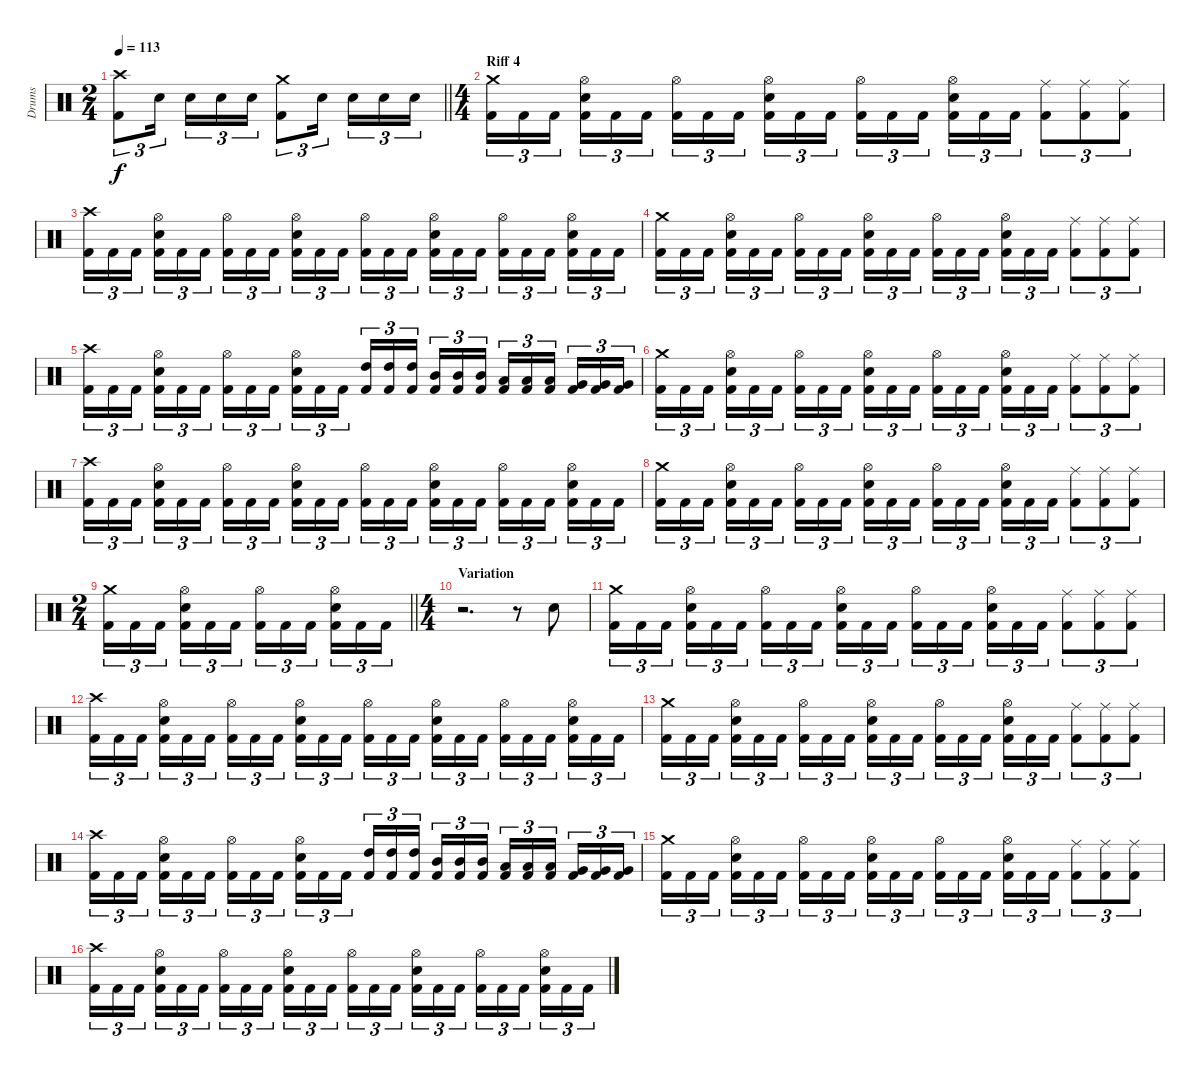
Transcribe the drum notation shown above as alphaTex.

\track ("Drums" "Drums") {instrument percussion}
\staff {score}
\articulation defaults
\ts (2 4)
\tempo 113
\clef neutral
\barLineRight lightlight
\ks c
("Crash high (hit)" "Kick (hit) 2").8{tu (3 2) dy f} "Snare (hit) 2".16{tu (3 2) beam splitsecondary} "Snare (hit) 2".16{tu (3 2)} "Snare (hit) 2".16{tu (3 2)} "Snare (hit) 2".16{tu (3 2)} ("Crash medium (hit)" "Kick (hit) 2").8{tu (3 2)} "Snare (hit) 2".16{tu (3 2) beam splitsecondary} "Snare (hit) 2".16{tu (3 2)} "Snare (hit) 2".16{tu (3 2)} "Snare (hit) 2".16{tu (3 2)} |
\ts (4 4)
\section ("" "Riff 4")
("Crash medium (hit)" "Kick (hit) 2").16{tu (3 2)} "Kick (hit) 2".16{tu (3 2)} "Kick (hit) 2".16{tu (3 2) beam splitsecondary} ("Hi-Hat (open)" "Snare (hit) 2" "Kick (hit) 2").16{tu (3 2)} "Kick (hit) 2".16{tu (3 2)} "Kick (hit) 2".16{tu (3 2)} ("Hi-Hat (open)" "Kick (hit) 2").16{tu (3 2)} "Kick (hit) 2".16{tu (3 2)} "Kick (hit) 2".16{tu (3 2) beam splitsecondary} ("Hi-Hat (open)" "Snare (hit) 2" "Kick (hit) 2").16{tu (3 2)} "Kick (hit) 2".16{tu (3 2)} "Kick (hit) 2".16{tu (3 2)} ("Hi-Hat (open)" "Kick (hit) 2").16{tu (3 2)} "Kick (hit) 2".16{tu (3 2)} "Kick (hit) 2".16{tu (3 2) beam splitsecondary} ("Hi-Hat (open)" "Snare (hit) 2" "Kick (hit) 2").16{tu (3 2)} "Kick (hit) 2".16{tu (3 2)} "Kick (hit) 2".16{tu (3 2)} ("Ride (middle)" "Kick (hit) 2").8{tu (3 2)} ("Ride (middle)" "Kick (hit) 2").8{tu (3 2)} ("Ride (middle)" "Kick (hit) 2").8{tu (3 2)} |
("Crash high (hit)" "Kick (hit) 2").16{tu (3 2)} "Kick (hit) 2".16{tu (3 2)} "Kick (hit) 2".16{tu (3 2) beam splitsecondary} ("Hi-Hat (open)" "Snare (hit) 2" "Kick (hit) 2").16{tu (3 2)} "Kick (hit) 2".16{tu (3 2)} "Kick (hit) 2".16{tu (3 2)} ("Hi-Hat (open)" "Kick (hit) 2").16{tu (3 2)} "Kick (hit) 2".16{tu (3 2)} "Kick (hit) 2".16{tu (3 2) beam splitsecondary} ("Hi-Hat (open)" "Snare (hit) 2" "Kick (hit) 2").16{tu (3 2)} "Kick (hit) 2".16{tu (3 2)} "Kick (hit) 2".16{tu (3 2)} ("Hi-Hat (open)" "Kick (hit) 2").16{tu (3 2)} "Kick (hit) 2".16{tu (3 2)} "Kick (hit) 2".16{tu (3 2) beam splitsecondary} ("Hi-Hat (open)" "Snare (hit) 2" "Kick (hit) 2").16{tu (3 2)} "Kick (hit) 2".16{tu (3 2)} "Kick (hit) 2".16{tu (3 2)} ("Hi-Hat (open)" "Kick (hit) 2").16{tu (3 2)} "Kick (hit) 2".16{tu (3 2)} "Kick (hit) 2".16{tu (3 2) beam splitsecondary} ("Hi-Hat (open)" "Snare (hit) 2" "Kick (hit) 2").16{tu (3 2)} "Kick (hit) 2".16{tu (3 2)} "Kick (hit) 2".16{tu (3 2)} |
("Crash medium (hit)" "Kick (hit) 2").16{tu (3 2)} "Kick (hit) 2".16{tu (3 2)} "Kick (hit) 2".16{tu (3 2) beam splitsecondary} ("Hi-Hat (open)" "Snare (hit) 2" "Kick (hit) 2").16{tu (3 2)} "Kick (hit) 2".16{tu (3 2)} "Kick (hit) 2".16{tu (3 2)} ("Hi-Hat (open)" "Kick (hit) 2").16{tu (3 2)} "Kick (hit) 2".16{tu (3 2)} "Kick (hit) 2".16{tu (3 2) beam splitsecondary} ("Hi-Hat (open)" "Snare (hit) 2" "Kick (hit) 2").16{tu (3 2)} "Kick (hit) 2".16{tu (3 2)} "Kick (hit) 2".16{tu (3 2)} ("Hi-Hat (open)" "Kick (hit) 2").16{tu (3 2)} "Kick (hit) 2".16{tu (3 2)} "Kick (hit) 2".16{tu (3 2) beam splitsecondary} ("Hi-Hat (open)" "Snare (hit) 2" "Kick (hit) 2").16{tu (3 2)} "Kick (hit) 2".16{tu (3 2)} "Kick (hit) 2".16{tu (3 2)} ("Ride (middle)" "Kick (hit) 2").8{tu (3 2)} ("Ride (middle)" "Kick (hit) 2").8{tu (3 2)} ("Ride (middle)" "Kick (hit) 2").8{tu (3 2)} |
("Crash high (hit)" "Kick (hit) 2").16{tu (3 2)} "Kick (hit) 2".16{tu (3 2)} "Kick (hit) 2".16{tu (3 2) beam splitsecondary} ("Hi-Hat (open)" "Snare (hit) 2" "Kick (hit) 2").16{tu (3 2)} "Kick (hit) 2".16{tu (3 2)} "Kick (hit) 2".16{tu (3 2)} ("Hi-Hat (open)" "Kick (hit) 2").16{tu (3 2)} "Kick (hit) 2".16{tu (3 2)} "Kick (hit) 2".16{tu (3 2) beam splitsecondary} ("Hi-Hat (open)" "Snare (hit) 2" "Kick (hit) 2").16{tu (3 2)} "Kick (hit) 2".16{tu (3 2)} "Kick (hit) 2".16{tu (3 2)} ("High Tom (hit)" "Kick (hit) 2").16{tu (3 2)} ("High Tom (hit)" "Kick (hit) 2").16{tu (3 2)} ("High Tom (hit)" "Kick (hit) 2").16{tu (3 2) beam splitsecondary} ("Mid Tom (hit)" "Kick (hit) 2").16{tu (3 2)} ("Mid Tom (hit)" "Kick (hit) 2").16{tu (3 2)} ("Mid Tom (hit)" "Kick (hit) 2").16{tu (3 2)} ("Low Tom (hit)" "Kick (hit) 2").16{tu (3 2)} ("Low Tom (hit)" "Kick (hit) 2").16{tu (3 2)} ("Low Tom (hit)" "Kick (hit) 2").16{tu (3 2) beam splitsecondary} ("Very Low Tom (hit)" "Kick (hit) 2").16{tu (3 2)} ("Very Low Tom (hit)" "Kick (hit) 2").16{tu (3 2)} ("Very Low Tom (hit)" "Kick (hit) 2").16{tu (3 2)} |
("Crash medium (hit)" "Kick (hit) 2").16{tu (3 2)} "Kick (hit) 2".16{tu (3 2)} "Kick (hit) 2".16{tu (3 2) beam splitsecondary} ("Hi-Hat (open)" "Snare (hit) 2" "Kick (hit) 2").16{tu (3 2)} "Kick (hit) 2".16{tu (3 2)} "Kick (hit) 2".16{tu (3 2)} ("Hi-Hat (open)" "Kick (hit) 2").16{tu (3 2)} "Kick (hit) 2".16{tu (3 2)} "Kick (hit) 2".16{tu (3 2) beam splitsecondary} ("Hi-Hat (open)" "Snare (hit) 2" "Kick (hit) 2").16{tu (3 2)} "Kick (hit) 2".16{tu (3 2)} "Kick (hit) 2".16{tu (3 2)} ("Hi-Hat (open)" "Kick (hit) 2").16{tu (3 2)} "Kick (hit) 2".16{tu (3 2)} "Kick (hit) 2".16{tu (3 2) beam splitsecondary} ("Hi-Hat (open)" "Snare (hit) 2" "Kick (hit) 2").16{tu (3 2)} "Kick (hit) 2".16{tu (3 2)} "Kick (hit) 2".16{tu (3 2)} ("Ride (middle)" "Kick (hit) 2").8{tu (3 2)} ("Ride (middle)" "Kick (hit) 2").8{tu (3 2)} ("Ride (middle)" "Kick (hit) 2").8{tu (3 2)} |
("Crash high (hit)" "Kick (hit) 2").16{tu (3 2)} "Kick (hit) 2".16{tu (3 2)} "Kick (hit) 2".16{tu (3 2) beam splitsecondary} ("Hi-Hat (open)" "Snare (hit) 2" "Kick (hit) 2").16{tu (3 2)} "Kick (hit) 2".16{tu (3 2)} "Kick (hit) 2".16{tu (3 2)} ("Hi-Hat (open)" "Kick (hit) 2").16{tu (3 2)} "Kick (hit) 2".16{tu (3 2)} "Kick (hit) 2".16{tu (3 2) beam splitsecondary} ("Hi-Hat (open)" "Snare (hit) 2" "Kick (hit) 2").16{tu (3 2)} "Kick (hit) 2".16{tu (3 2)} "Kick (hit) 2".16{tu (3 2)} ("Hi-Hat (open)" "Kick (hit) 2").16{tu (3 2)} "Kick (hit) 2".16{tu (3 2)} "Kick (hit) 2".16{tu (3 2) beam splitsecondary} ("Hi-Hat (open)" "Snare (hit) 2" "Kick (hit) 2").16{tu (3 2)} "Kick (hit) 2".16{tu (3 2)} "Kick (hit) 2".16{tu (3 2)} ("Hi-Hat (open)" "Kick (hit) 2").16{tu (3 2)} "Kick (hit) 2".16{tu (3 2)} "Kick (hit) 2".16{tu (3 2) beam splitsecondary} ("Hi-Hat (open)" "Snare (hit) 2" "Kick (hit) 2").16{tu (3 2)} "Kick (hit) 2".16{tu (3 2)} "Kick (hit) 2".16{tu (3 2)} |
("Crash medium (hit)" "Kick (hit) 2").16{tu (3 2)} "Kick (hit) 2".16{tu (3 2)} "Kick (hit) 2".16{tu (3 2) beam splitsecondary} ("Hi-Hat (open)" "Snare (hit) 2" "Kick (hit) 2").16{tu (3 2)} "Kick (hit) 2".16{tu (3 2)} "Kick (hit) 2".16{tu (3 2)} ("Hi-Hat (open)" "Kick (hit) 2").16{tu (3 2)} "Kick (hit) 2".16{tu (3 2)} "Kick (hit) 2".16{tu (3 2) beam splitsecondary} ("Hi-Hat (open)" "Snare (hit) 2" "Kick (hit) 2").16{tu (3 2)} "Kick (hit) 2".16{tu (3 2)} "Kick (hit) 2".16{tu (3 2)} ("Hi-Hat (open)" "Kick (hit) 2").16{tu (3 2)} "Kick (hit) 2".16{tu (3 2)} "Kick (hit) 2".16{tu (3 2) beam splitsecondary} ("Hi-Hat (open)" "Snare (hit) 2" "Kick (hit) 2").16{tu (3 2)} "Kick (hit) 2".16{tu (3 2)} "Kick (hit) 2".16{tu (3 2)} ("Ride (middle)" "Kick (hit) 2").8{tu (3 2)} ("Ride (middle)" "Kick (hit) 2").8{tu (3 2)} ("Ride (middle)" "Kick (hit) 2").8{tu (3 2)} |
\ts (2 4)
\barLineRight lightlight
("Crash medium (hit)" "Kick (hit) 2").16{tu (3 2)} "Kick (hit) 2".16{tu (3 2)} "Kick (hit) 2".16{tu (3 2) beam splitsecondary} ("Hi-Hat (open)" "Snare (hit) 2" "Kick (hit) 2").16{tu (3 2)} "Kick (hit) 2".16{tu (3 2)} "Kick (hit) 2".16{tu (3 2)} ("Hi-Hat (open)" "Kick (hit) 2").16{tu (3 2)} "Kick (hit) 2".16{tu (3 2)} "Kick (hit) 2".16{tu (3 2) beam splitsecondary} ("Hi-Hat (open)" "Snare (hit) 2" "Kick (hit) 2").16{tu (3 2)} "Kick (hit) 2".16{tu (3 2)} "Kick (hit) 2".16{tu (3 2)} |
\ts (4 4)
\section ("" "Variation")
r.2{d} r.8 "Snare (hit) 2".8 |
("Crash medium (hit)" "Kick (hit) 2").16{tu (3 2)} "Kick (hit) 2".16{tu (3 2)} "Kick (hit) 2".16{tu (3 2) beam splitsecondary} ("Hi-Hat (open)" "Snare (hit) 2" "Kick (hit) 2").16{tu (3 2)} "Kick (hit) 2".16{tu (3 2)} "Kick (hit) 2".16{tu (3 2)} ("Hi-Hat (open)" "Kick (hit) 2").16{tu (3 2)} "Kick (hit) 2".16{tu (3 2)} "Kick (hit) 2".16{tu (3 2) beam splitsecondary} ("Hi-Hat (open)" "Snare (hit) 2" "Kick (hit) 2").16{tu (3 2)} "Kick (hit) 2".16{tu (3 2)} "Kick (hit) 2".16{tu (3 2)} ("Hi-Hat (open)" "Kick (hit) 2").16{tu (3 2)} "Kick (hit) 2".16{tu (3 2)} "Kick (hit) 2".16{tu (3 2) beam splitsecondary} ("Hi-Hat (open)" "Snare (hit) 2" "Kick (hit) 2").16{tu (3 2)} "Kick (hit) 2".16{tu (3 2)} "Kick (hit) 2".16{tu (3 2)} ("Ride (middle)" "Kick (hit) 2").8{tu (3 2)} ("Ride (middle)" "Kick (hit) 2").8{tu (3 2)} ("Ride (middle)" "Kick (hit) 2").8{tu (3 2)} |
("Crash high (hit)" "Kick (hit) 2").16{tu (3 2)} "Kick (hit) 2".16{tu (3 2)} "Kick (hit) 2".16{tu (3 2) beam splitsecondary} ("Hi-Hat (open)" "Snare (hit) 2" "Kick (hit) 2").16{tu (3 2)} "Kick (hit) 2".16{tu (3 2)} "Kick (hit) 2".16{tu (3 2)} ("Hi-Hat (open)" "Kick (hit) 2").16{tu (3 2)} "Kick (hit) 2".16{tu (3 2)} "Kick (hit) 2".16{tu (3 2) beam splitsecondary} ("Hi-Hat (open)" "Snare (hit) 2" "Kick (hit) 2").16{tu (3 2)} "Kick (hit) 2".16{tu (3 2)} "Kick (hit) 2".16{tu (3 2)} ("Hi-Hat (open)" "Kick (hit) 2").16{tu (3 2)} "Kick (hit) 2".16{tu (3 2)} "Kick (hit) 2".16{tu (3 2) beam splitsecondary} ("Hi-Hat (open)" "Snare (hit) 2" "Kick (hit) 2").16{tu (3 2)} "Kick (hit) 2".16{tu (3 2)} "Kick (hit) 2".16{tu (3 2)} ("Hi-Hat (open)" "Kick (hit) 2").16{tu (3 2)} "Kick (hit) 2".16{tu (3 2)} "Kick (hit) 2".16{tu (3 2) beam splitsecondary} ("Hi-Hat (open)" "Snare (hit) 2" "Kick (hit) 2").16{tu (3 2)} "Kick (hit) 2".16{tu (3 2)} "Kick (hit) 2".16{tu (3 2)} |
("Crash medium (hit)" "Kick (hit) 2").16{tu (3 2)} "Kick (hit) 2".16{tu (3 2)} "Kick (hit) 2".16{tu (3 2) beam splitsecondary} ("Hi-Hat (open)" "Snare (hit) 2" "Kick (hit) 2").16{tu (3 2)} "Kick (hit) 2".16{tu (3 2)} "Kick (hit) 2".16{tu (3 2)} ("Hi-Hat (open)" "Kick (hit) 2").16{tu (3 2)} "Kick (hit) 2".16{tu (3 2)} "Kick (hit) 2".16{tu (3 2) beam splitsecondary} ("Hi-Hat (open)" "Snare (hit) 2" "Kick (hit) 2").16{tu (3 2)} "Kick (hit) 2".16{tu (3 2)} "Kick (hit) 2".16{tu (3 2)} ("Hi-Hat (open)" "Kick (hit) 2").16{tu (3 2)} "Kick (hit) 2".16{tu (3 2)} "Kick (hit) 2".16{tu (3 2) beam splitsecondary} ("Hi-Hat (open)" "Snare (hit) 2" "Kick (hit) 2").16{tu (3 2)} "Kick (hit) 2".16{tu (3 2)} "Kick (hit) 2".16{tu (3 2)} ("Ride (middle)" "Kick (hit) 2").8{tu (3 2)} ("Ride (middle)" "Kick (hit) 2").8{tu (3 2)} ("Ride (middle)" "Kick (hit) 2").8{tu (3 2)} |
("Crash high (hit)" "Kick (hit) 2").16{tu (3 2)} "Kick (hit) 2".16{tu (3 2)} "Kick (hit) 2".16{tu (3 2) beam splitsecondary} ("Hi-Hat (open)" "Snare (hit) 2" "Kick (hit) 2").16{tu (3 2)} "Kick (hit) 2".16{tu (3 2)} "Kick (hit) 2".16{tu (3 2)} ("Hi-Hat (open)" "Kick (hit) 2").16{tu (3 2)} "Kick (hit) 2".16{tu (3 2)} "Kick (hit) 2".16{tu (3 2) beam splitsecondary} ("Hi-Hat (open)" "Snare (hit) 2" "Kick (hit) 2").16{tu (3 2)} "Kick (hit) 2".16{tu (3 2)} "Kick (hit) 2".16{tu (3 2)} ("High Tom (hit)" "Kick (hit) 2").16{tu (3 2)} ("High Tom (hit)" "Kick (hit) 2").16{tu (3 2)} ("High Tom (hit)" "Kick (hit) 2").16{tu (3 2) beam splitsecondary} ("Mid Tom (hit)" "Kick (hit) 2").16{tu (3 2)} ("Mid Tom (hit)" "Kick (hit) 2").16{tu (3 2)} ("Mid Tom (hit)" "Kick (hit) 2").16{tu (3 2)} ("Low Tom (hit)" "Kick (hit) 2").16{tu (3 2)} ("Low Tom (hit)" "Kick (hit) 2").16{tu (3 2)} ("Low Tom (hit)" "Kick (hit) 2").16{tu (3 2) beam splitsecondary} ("Very Low Tom (hit)" "Kick (hit) 2").16{tu (3 2)} ("Very Low Tom (hit)" "Kick (hit) 2").16{tu (3 2)} ("Very Low Tom (hit)" "Kick (hit) 2").16{tu (3 2)} |
("Crash medium (hit)" "Kick (hit) 2").16{tu (3 2)} "Kick (hit) 2".16{tu (3 2)} "Kick (hit) 2".16{tu (3 2) beam splitsecondary} ("Hi-Hat (open)" "Snare (hit) 2" "Kick (hit) 2").16{tu (3 2)} "Kick (hit) 2".16{tu (3 2)} "Kick (hit) 2".16{tu (3 2)} ("Hi-Hat (open)" "Kick (hit) 2").16{tu (3 2)} "Kick (hit) 2".16{tu (3 2)} "Kick (hit) 2".16{tu (3 2) beam splitsecondary} ("Hi-Hat (open)" "Snare (hit) 2" "Kick (hit) 2").16{tu (3 2)} "Kick (hit) 2".16{tu (3 2)} "Kick (hit) 2".16{tu (3 2)} ("Hi-Hat (open)" "Kick (hit) 2").16{tu (3 2)} "Kick (hit) 2".16{tu (3 2)} "Kick (hit) 2".16{tu (3 2) beam splitsecondary} ("Hi-Hat (open)" "Snare (hit) 2" "Kick (hit) 2").16{tu (3 2)} "Kick (hit) 2".16{tu (3 2)} "Kick (hit) 2".16{tu (3 2)} ("Ride (middle)" "Kick (hit) 2").8{tu (3 2)} ("Ride (middle)" "Kick (hit) 2").8{tu (3 2)} ("Ride (middle)" "Kick (hit) 2").8{tu (3 2)} |
("Crash high (hit)" "Kick (hit) 2").16{tu (3 2)} "Kick (hit) 2".16{tu (3 2)} "Kick (hit) 2".16{tu (3 2) beam splitsecondary} ("Hi-Hat (open)" "Snare (hit) 2" "Kick (hit) 2").16{tu (3 2)} "Kick (hit) 2".16{tu (3 2)} "Kick (hit) 2".16{tu (3 2)} ("Hi-Hat (open)" "Kick (hit) 2").16{tu (3 2)} "Kick (hit) 2".16{tu (3 2)} "Kick (hit) 2".16{tu (3 2) beam splitsecondary} ("Hi-Hat (open)" "Snare (hit) 2" "Kick (hit) 2").16{tu (3 2)} "Kick (hit) 2".16{tu (3 2)} "Kick (hit) 2".16{tu (3 2)} ("Hi-Hat (open)" "Kick (hit) 2").16{tu (3 2)} "Kick (hit) 2".16{tu (3 2)} "Kick (hit) 2".16{tu (3 2) beam splitsecondary} ("Hi-Hat (open)" "Snare (hit) 2" "Kick (hit) 2").16{tu (3 2)} "Kick (hit) 2".16{tu (3 2)} "Kick (hit) 2".16{tu (3 2)} ("Hi-Hat (open)" "Kick (hit) 2").16{tu (3 2)} "Kick (hit) 2".16{tu (3 2)} "Kick (hit) 2".16{tu (3 2) beam splitsecondary} ("Hi-Hat (open)" "Snare (hit) 2" "Kick (hit) 2").16{tu (3 2)} "Kick (hit) 2".16{tu (3 2)} "Kick (hit) 2".16{tu (3 2)}
